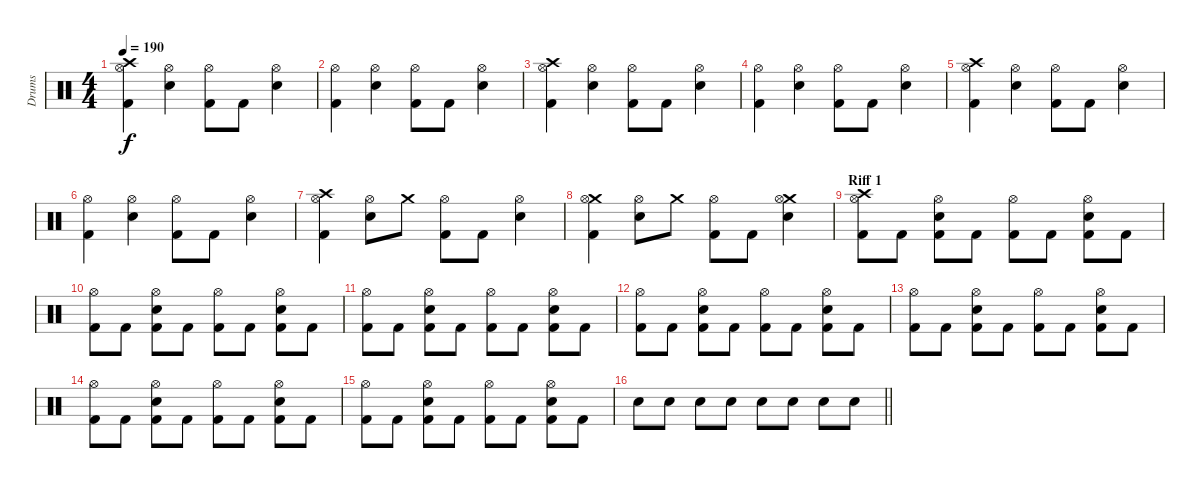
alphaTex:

\track ("Drums" "Drums") {instrument percussion}
\staff {score}
\articulation defaults
\ts (4 4)
\tempo 190
\clef neutral
\ks c
("Crash high (hit)" "Hi-Hat (open)" "Kick (hit) 2").4{dy f} ("Hi-Hat (open)" "Electric Snare (hit)").4 ("Hi-Hat (open)" "Kick (hit) 2").8 "Kick (hit) 2".8 ("Hi-Hat (open)" "Electric Snare (hit)").4 |
("Hi-Hat (open)" "Kick (hit) 2").4 ("Hi-Hat (open)" "Electric Snare (hit)").4 ("Hi-Hat (open)" "Kick (hit) 2").8 "Kick (hit) 2".8 ("Hi-Hat (open)" "Electric Snare (hit)").4 |
("Crash high (hit)" "Hi-Hat (open)" "Kick (hit) 2").4 ("Hi-Hat (open)" "Electric Snare (hit)").4 ("Hi-Hat (open)" "Kick (hit) 2").8 "Kick (hit) 2".8 ("Hi-Hat (open)" "Electric Snare (hit)").4 |
("Hi-Hat (open)" "Kick (hit) 2").4 ("Hi-Hat (open)" "Electric Snare (hit)").4 ("Hi-Hat (open)" "Kick (hit) 2").8 "Kick (hit) 2".8 ("Hi-Hat (open)" "Electric Snare (hit)").4 |
("Crash high (hit)" "Hi-Hat (open)" "Kick (hit) 2").4 ("Hi-Hat (open)" "Electric Snare (hit)").4 ("Hi-Hat (open)" "Kick (hit) 2").8 "Kick (hit) 2".8 ("Hi-Hat (open)" "Electric Snare (hit)").4 |
("Hi-Hat (open)" "Kick (hit) 2").4 ("Hi-Hat (open)" "Electric Snare (hit)").4 ("Hi-Hat (open)" "Kick (hit) 2").8 "Kick (hit) 2".8 ("Hi-Hat (open)" "Electric Snare (hit)").4 |
("Crash high (hit)" "Hi-Hat (open)" "Kick (hit) 2").4 ("Hi-Hat (open)" "Electric Snare (hit)").8 "Crash medium (hit)".8 ("Hi-Hat (open)" "Kick (hit) 2").8 "Kick (hit) 2".8 ("Hi-Hat (open)" "Electric Snare (hit)").4 |
("Crash medium (hit)" "Hi-Hat (open)" "Kick (hit) 2").4 ("Hi-Hat (open)" "Electric Snare (hit)").8 "Crash medium (hit)".8 ("Hi-Hat (open)" "Kick (hit) 2").8 "Kick (hit) 2".8 ("Crash medium (hit)" "Hi-Hat (open)" "Electric Snare (hit)").4 |
\section ("" "Riff 1")
("Crash high (hit)" "Hi-Hat (open)" "Kick (hit) 2").8 "Kick (hit) 2".8 ("Hi-Hat (open)" "Electric Snare (hit)" "Kick (hit) 2").8 "Kick (hit) 2".8 ("Hi-Hat (open)" "Kick (hit) 2").8 "Kick (hit) 2".8 ("Hi-Hat (open)" "Electric Snare (hit)" "Kick (hit) 2").8 "Kick (hit) 2".8 |
("Hi-Hat (open)" "Kick (hit) 2").8 "Kick (hit) 2".8 ("Hi-Hat (open)" "Electric Snare (hit)" "Kick (hit) 2").8 "Kick (hit) 2".8 ("Hi-Hat (open)" "Kick (hit) 2").8 "Kick (hit) 2".8 ("Hi-Hat (open)" "Electric Snare (hit)" "Kick (hit) 2").8 "Kick (hit) 2".8 |
("Hi-Hat (open)" "Kick (hit) 2").8 "Kick (hit) 2".8 ("Hi-Hat (open)" "Electric Snare (hit)" "Kick (hit) 2").8 "Kick (hit) 2".8 ("Hi-Hat (open)" "Kick (hit) 2").8 "Kick (hit) 2".8 ("Hi-Hat (open)" "Electric Snare (hit)" "Kick (hit) 2").8 "Kick (hit) 2".8 |
("Hi-Hat (open)" "Kick (hit) 2").8 "Kick (hit) 2".8 ("Hi-Hat (open)" "Electric Snare (hit)" "Kick (hit) 2").8 "Kick (hit) 2".8 ("Hi-Hat (open)" "Kick (hit) 2").8 "Kick (hit) 2".8 ("Hi-Hat (open)" "Electric Snare (hit)" "Kick (hit) 2").8 "Kick (hit) 2".8 |
("Hi-Hat (open)" "Kick (hit) 2").8 "Kick (hit) 2".8 ("Hi-Hat (open)" "Electric Snare (hit)" "Kick (hit) 2").8 "Kick (hit) 2".8 ("Hi-Hat (open)" "Kick (hit) 2").8 "Kick (hit) 2".8 ("Hi-Hat (open)" "Electric Snare (hit)" "Kick (hit) 2").8 "Kick (hit) 2".8 |
("Hi-Hat (open)" "Kick (hit) 2").8 "Kick (hit) 2".8 ("Hi-Hat (open)" "Electric Snare (hit)" "Kick (hit) 2").8 "Kick (hit) 2".8 ("Hi-Hat (open)" "Kick (hit) 2").8 "Kick (hit) 2".8 ("Hi-Hat (open)" "Electric Snare (hit)" "Kick (hit) 2").8 "Kick (hit) 2".8 |
("Hi-Hat (open)" "Kick (hit) 2").8 "Kick (hit) 2".8 ("Hi-Hat (open)" "Electric Snare (hit)" "Kick (hit) 2").8 "Kick (hit) 2".8 ("Hi-Hat (open)" "Kick (hit) 2").8 "Kick (hit) 2".8 ("Hi-Hat (open)" "Electric Snare (hit)" "Kick (hit) 2").8 "Kick (hit) 2".8 |
\barLineRight lightlight "Electric Snare (hit)".8 "Electric Snare (hit)".8 "Electric Snare (hit)".8 "Electric Snare (hit)".8 "Electric Snare (hit)".8 "Electric Snare (hit)".8 "Electric Snare (hit)".8 "Electric Snare (hit)".8
